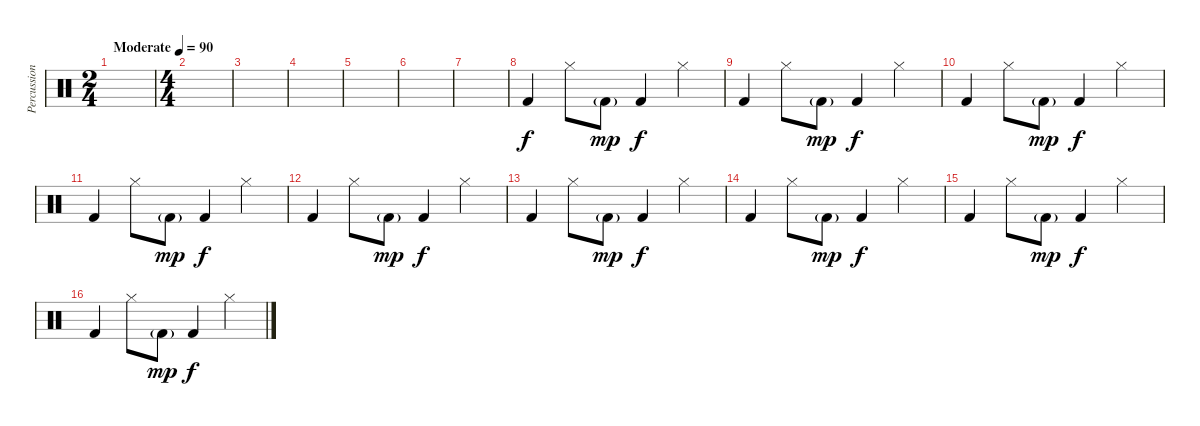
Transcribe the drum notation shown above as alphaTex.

\track ("Percussion" "Percussion") {instrument percussion}
\staff {score}
\articulation defaults
\ts (2 4)
\tempo (90 "Moderate")
\clef neutral
\ks c
|
\ts (4 4)
|
|
|
|
|
|
"Kick (hit) 2".4{volume 6} "Hi-Hat (closed)".8{volume 13} "Kick (hit) 2"{g}.8{dy mp volume 6} "Kick (hit) 2".4{dy f} "Hi-Hat (closed)".4{volume 13} |
"Kick (hit) 2".4{volume 6} "Hi-Hat (closed)".8{volume 13} "Kick (hit) 2"{g}.8{dy mp volume 6} "Kick (hit) 2".4{dy f} "Hi-Hat (closed)".4{volume 13} |
"Kick (hit) 2".4{volume 6} "Hi-Hat (closed)".8{volume 13} "Kick (hit) 2"{g}.8{dy mp volume 6} "Kick (hit) 2".4{dy f} "Hi-Hat (closed)".4{volume 13} |
"Kick (hit) 2".4{volume 6} "Hi-Hat (closed)".8{volume 13} "Kick (hit) 2"{g}.8{dy mp volume 6} "Kick (hit) 2".4{dy f} "Hi-Hat (closed)".4{volume 13} |
"Kick (hit) 2".4{volume 6} "Hi-Hat (closed)".8{volume 13} "Kick (hit) 2"{g}.8{dy mp volume 6} "Kick (hit) 2".4{dy f} "Hi-Hat (closed)".4{volume 13} |
"Kick (hit) 2".4{volume 6} "Hi-Hat (closed)".8{volume 13} "Kick (hit) 2"{g}.8{dy mp volume 6} "Kick (hit) 2".4{dy f} "Hi-Hat (closed)".4{volume 13} |
"Kick (hit) 2".4{volume 6} "Hi-Hat (closed)".8{volume 13} "Kick (hit) 2"{g}.8{dy mp volume 6} "Kick (hit) 2".4{dy f} "Hi-Hat (closed)".4{volume 13} |
"Kick (hit) 2".4{volume 6} "Hi-Hat (closed)".8{volume 13} "Kick (hit) 2"{g}.8{dy mp volume 6} "Kick (hit) 2".4{dy f} "Hi-Hat (closed)".4{volume 13} |
"Kick (hit) 2".4{volume 6} "Hi-Hat (closed)".8{volume 13} "Kick (hit) 2"{g}.8{dy mp volume 6} "Kick (hit) 2".4{dy f} "Hi-Hat (closed)".4{volume 13}
